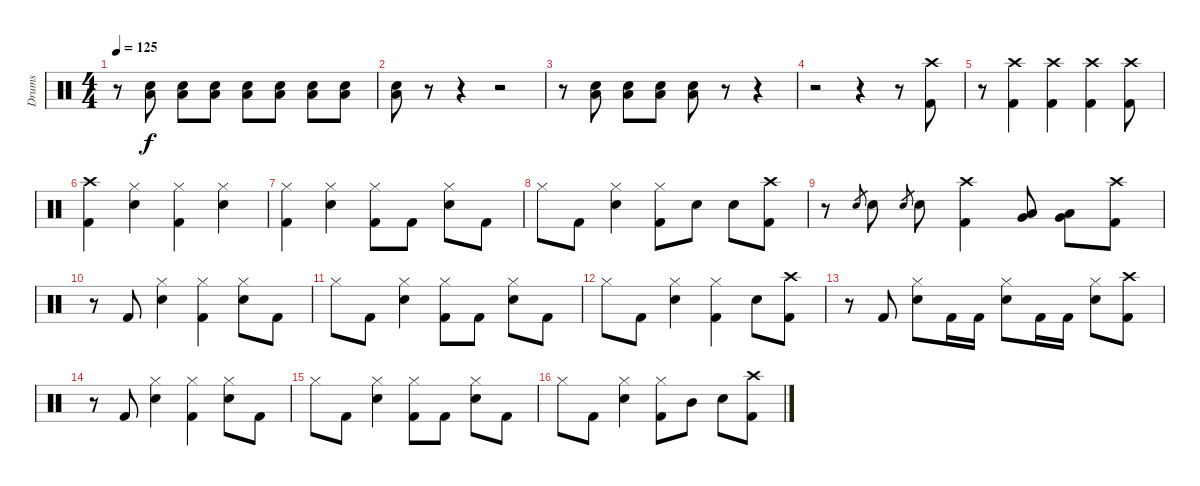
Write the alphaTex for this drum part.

\track ("Drums" "Drums") {instrument percussion}
\staff {score}
\articulation defaults
\ts (4 4)
\tempo 125
\clef neutral
\ks c
r.8{dy f} ("Electric Snare (hit)" "Low Tom (hit)").8 ("Electric Snare (hit)" "Low Tom (hit)").8 ("Electric Snare (hit)" "Low Tom (hit)").8 ("Electric Snare (hit)" "Low Tom (hit)").8 ("Electric Snare (hit)" "Low Tom (hit)").8 ("Electric Snare (hit)" "Low Tom (hit)").8 ("Electric Snare (hit)" "Low Tom (hit)").8 |
("Electric Snare (hit)" "Low Tom (hit)").8 r.8 r.4 r.2 |
r.8 ("Electric Snare (hit)" "Low Tom (hit)").8 ("Electric Snare (hit)" "Low Tom (hit)").8 ("Electric Snare (hit)" "Low Tom (hit)").8 ("Electric Snare (hit)" "Low Tom (hit)").8 r.8 r.4 |
r.2 r.4 r.8 ("Crash high (hit)" "Kick (hit) 2").8 |
r.8 ("Crash high (hit)" "Kick (hit) 2").4 ("Crash high (hit)" "Kick (hit) 2").4 ("Crash high (hit)" "Kick (hit) 2").4 ("Crash high (hit)" "Kick (hit) 2").8 |
("Crash high (hit)" "Kick (hit) 2").4 ("Hi-Hat (closed)" "Electric Snare (hit)").4 ("Hi-Hat (closed)" "Kick (hit) 2").4 ("Hi-Hat (closed)" "Electric Snare (hit)").4 |
("Hi-Hat (closed)" "Kick (hit) 2").4 ("Hi-Hat (closed)" "Electric Snare (hit)").4 ("Hi-Hat (closed)" "Kick (hit) 2").8 "Kick (hit) 2".8 ("Hi-Hat (closed)" "Electric Snare (hit)").8 "Kick (hit) 2".8 |
"Hi-Hat (closed)".8 "Kick (hit) 2".8 ("Hi-Hat (closed)" "Electric Snare (hit)").4 ("Hi-Hat (closed)" "Kick (hit) 2").8 "Electric Snare (hit)".8 "Electric Snare (hit)".8 ("Crash high (hit)" "Kick (hit) 2").8 |
r.8 "Electric Snare (hit)".8{gr} "Electric Snare (hit)".8 "Electric Snare (hit)".8{gr} "Electric Snare (hit)".8 ("Crash high (hit)" "Kick (hit) 2").4 ("Low Tom (hit)" "Very Low Tom (hit)").8 ("Low Tom (hit)" "Very Low Tom (hit)").8 ("Crash high (hit)" "Kick (hit) 2").8 |
r.8 "Kick (hit) 2".8 ("Hi-Hat (closed)" "Electric Snare (hit)").4 ("Hi-Hat (closed)" "Kick (hit) 2").4 ("Hi-Hat (closed)" "Electric Snare (hit)").8 "Kick (hit) 2".8 |
"Hi-Hat (closed)".8 "Kick (hit) 2".8 ("Hi-Hat (closed)" "Electric Snare (hit)").4 ("Hi-Hat (closed)" "Kick (hit) 2").8 "Kick (hit) 2".8 ("Hi-Hat (closed)" "Electric Snare (hit)").8 "Kick (hit) 2".8 |
"Hi-Hat (closed)".8 "Kick (hit) 2".8 ("Hi-Hat (closed)" "Electric Snare (hit)").4 ("Hi-Hat (closed)" "Kick (hit) 2").4 "Electric Snare (hit)".8 ("Crash high (hit)" "Kick (hit) 2").8 |
r.8 "Kick (hit) 2".8 ("Hi-Hat (closed)" "Electric Snare (hit)").8 "Kick (hit) 2".16 "Kick (hit) 2".16 ("Hi-Hat (closed)" "Electric Snare (hit)").8 "Kick (hit) 2".16 "Kick (hit) 2".16 ("Hi-Hat (closed)" "Electric Snare (hit)").8 ("Crash high (hit)" "Kick (hit) 2").8 |
r.8 "Kick (hit) 2".8 ("Hi-Hat (closed)" "Electric Snare (hit)").4 ("Hi-Hat (closed)" "Kick (hit) 2").4 ("Hi-Hat (closed)" "Electric Snare (hit)").8 "Kick (hit) 2".8 |
"Hi-Hat (closed)".8 "Kick (hit) 2".8 ("Hi-Hat (closed)" "Electric Snare (hit)").4 ("Hi-Hat (closed)" "Kick (hit) 2").8 "Kick (hit) 2".8 ("Hi-Hat (closed)" "Electric Snare (hit)").8 "Kick (hit) 2".8 |
"Hi-Hat (closed)".8 "Kick (hit) 2".8 ("Hi-Hat (closed)" "Electric Snare (hit)").4 ("Hi-Hat (closed)" "Kick (hit) 2").8 "Mid Tom (hit)".8 "Electric Snare (hit)".8 ("Crash high (hit)" "Kick (hit) 2").8
